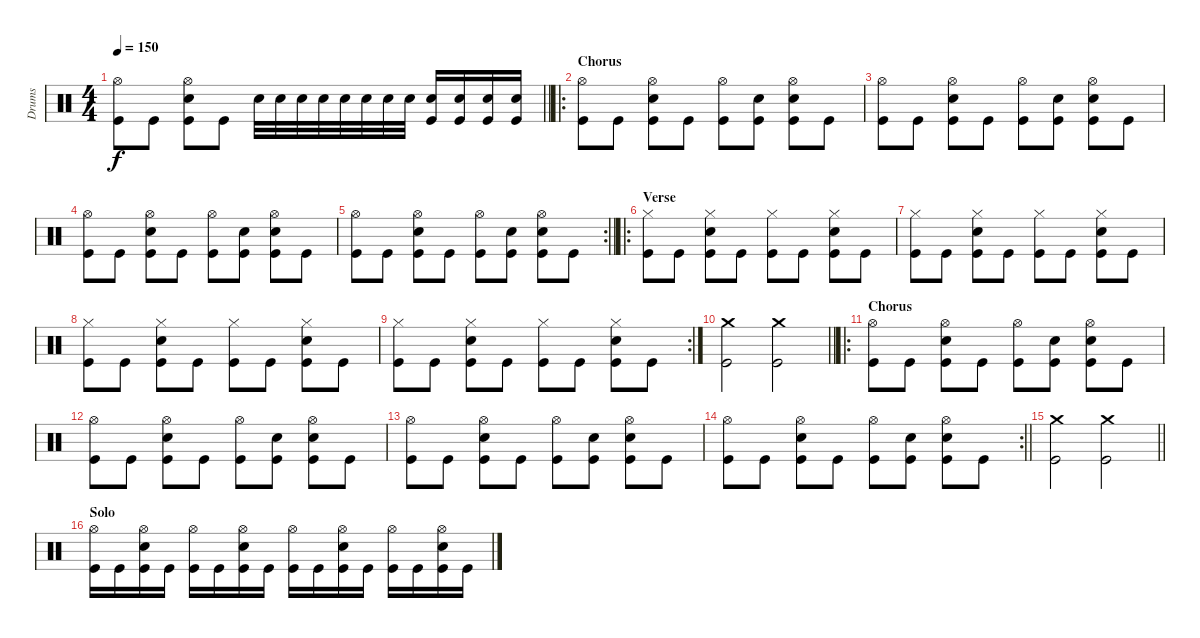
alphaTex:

\track ("Drums" "Drums") {instrument percussion}
\staff {score}
\articulation defaults
\ts (4 4)
\tempo 150
\clef neutral
\barLineRight lightlight
\ks c
("Hi-Hat (open)" "Kick (hit)").8{dy f} "Kick (hit)".8 ("Hi-Hat (open)" "Snare (hit) 2" "Kick (hit)").8 "Kick (hit)".8 "Snare (hit) 2".32 "Snare (hit) 2".32 "Snare (hit) 2".32 "Snare (hit) 2".32 "Snare (hit) 2".32 "Snare (hit) 2".32 "Snare (hit) 2".32 "Snare (hit) 2".32 ("Snare (hit) 2" "Kick (hit)").16 ("Snare (hit) 2" "Kick (hit)").16 ("Snare (hit) 2" "Kick (hit)").16 ("Snare (hit) 2" "Kick (hit)").16 |
\ro
\section ("" "Chorus")
("Hi-Hat (open)" "Kick (hit)").8 "Kick (hit)".8 ("Hi-Hat (open)" "Snare (hit) 2" "Kick (hit)").8 "Kick (hit)".8 ("Hi-Hat (open)" "Kick (hit)").8 ("Snare (hit) 2" "Kick (hit)").8 ("Hi-Hat (open)" "Snare (hit) 2" "Kick (hit)").8 "Kick (hit)".8 |
("Hi-Hat (open)" "Kick (hit)").8 "Kick (hit)".8 ("Hi-Hat (open)" "Snare (hit) 2" "Kick (hit)").8 "Kick (hit)".8 ("Hi-Hat (open)" "Kick (hit)").8 ("Snare (hit) 2" "Kick (hit)").8 ("Hi-Hat (open)" "Snare (hit) 2" "Kick (hit)").8 "Kick (hit)".8 |
("Hi-Hat (open)" "Kick (hit)").8 "Kick (hit)".8 ("Hi-Hat (open)" "Snare (hit) 2" "Kick (hit)").8 "Kick (hit)".8 ("Hi-Hat (open)" "Kick (hit)").8 ("Snare (hit) 2" "Kick (hit)").8 ("Hi-Hat (open)" "Snare (hit) 2" "Kick (hit)").8 "Kick (hit)".8 |
\rc 2
\barLineRight lightlight
("Hi-Hat (open)" "Kick (hit)").8 "Kick (hit)".8 ("Hi-Hat (open)" "Snare (hit) 2" "Kick (hit)").8 "Kick (hit)".8 ("Hi-Hat (open)" "Kick (hit)").8 ("Snare (hit) 2" "Kick (hit)").8 ("Hi-Hat (open)" "Snare (hit) 2" "Kick (hit)").8 "Kick (hit)".8 |
\ro
\section ("" "Verse")
("Hi-Hat (closed)" "Kick (hit)").8 "Kick (hit)".8 ("Hi-Hat (closed)" "Snare (hit) 2" "Kick (hit)").8 "Kick (hit)".8 ("Hi-Hat (closed)" "Kick (hit)").8 "Kick (hit)".8 ("Hi-Hat (closed)" "Snare (hit) 2" "Kick (hit)").8 "Kick (hit)".8 |
("Hi-Hat (closed)" "Kick (hit)").8 "Kick (hit)".8 ("Hi-Hat (closed)" "Snare (hit) 2" "Kick (hit)").8 "Kick (hit)".8 ("Hi-Hat (closed)" "Kick (hit)").8 "Kick (hit)".8 ("Hi-Hat (closed)" "Snare (hit) 2" "Kick (hit)").8 "Kick (hit)".8 |
("Hi-Hat (closed)" "Kick (hit)").8 "Kick (hit)".8 ("Hi-Hat (closed)" "Snare (hit) 2" "Kick (hit)").8 "Kick (hit)".8 ("Hi-Hat (closed)" "Kick (hit)").8 "Kick (hit)".8 ("Hi-Hat (closed)" "Snare (hit) 2" "Kick (hit)").8 "Kick (hit)".8 |
\rc 2
("Hi-Hat (closed)" "Kick (hit)").8 "Kick (hit)".8 ("Hi-Hat (closed)" "Snare (hit) 2" "Kick (hit)").8 "Kick (hit)".8 ("Hi-Hat (closed)" "Kick (hit)").8 "Kick (hit)".8 ("Hi-Hat (closed)" "Snare (hit) 2" "Kick (hit)").8 "Kick (hit)".8 |
\barLineRight lightlight
("Crash medium (hit)" "Kick (hit)").2 ("Crash medium (hit)" "Kick (hit)").2 |
\ro
\section ("" "Chorus")
("Hi-Hat (open)" "Kick (hit)").8 "Kick (hit)".8 ("Hi-Hat (open)" "Snare (hit) 2" "Kick (hit)").8 "Kick (hit)".8 ("Hi-Hat (open)" "Kick (hit)").8 ("Snare (hit) 2" "Kick (hit)").8 ("Hi-Hat (open)" "Snare (hit) 2" "Kick (hit)").8 "Kick (hit)".8 |
("Hi-Hat (open)" "Kick (hit)").8 "Kick (hit)".8 ("Hi-Hat (open)" "Snare (hit) 2" "Kick (hit)").8 "Kick (hit)".8 ("Hi-Hat (open)" "Kick (hit)").8 ("Snare (hit) 2" "Kick (hit)").8 ("Hi-Hat (open)" "Snare (hit) 2" "Kick (hit)").8 "Kick (hit)".8 |
("Hi-Hat (open)" "Kick (hit)").8 "Kick (hit)".8 ("Hi-Hat (open)" "Snare (hit) 2" "Kick (hit)").8 "Kick (hit)".8 ("Hi-Hat (open)" "Kick (hit)").8 ("Snare (hit) 2" "Kick (hit)").8 ("Hi-Hat (open)" "Snare (hit) 2" "Kick (hit)").8 "Kick (hit)".8 |
\rc 2
\barLineRight lightlight
("Hi-Hat (open)" "Kick (hit)").8 "Kick (hit)".8 ("Hi-Hat (open)" "Snare (hit) 2" "Kick (hit)").8 "Kick (hit)".8 ("Hi-Hat (open)" "Kick (hit)").8 ("Snare (hit) 2" "Kick (hit)").8 ("Hi-Hat (open)" "Snare (hit) 2" "Kick (hit)").8 "Kick (hit)".8 |
\barLineRight lightlight
("Crash medium (hit)" "Kick (hit)").2 ("Crash medium (hit)" "Kick (hit)").2 |
\section ("" "Solo")
("Hi-Hat (open)" "Kick (hit)").16 "Kick (hit)".16 ("Hi-Hat (open)" "Snare (hit) 2" "Kick (hit)").16 "Kick (hit)".16 ("Hi-Hat (open)" "Kick (hit)").16 "Kick (hit)".16 ("Hi-Hat (open)" "Snare (hit) 2" "Kick (hit)").16 "Kick (hit)".16 ("Hi-Hat (open)" "Kick (hit)").16 "Kick (hit)".16 ("Hi-Hat (open)" "Snare (hit) 2" "Kick (hit)").16 "Kick (hit)".16 ("Hi-Hat (open)" "Kick (hit)").16 "Kick (hit)".16 ("Hi-Hat (open)" "Snare (hit) 2" "Kick (hit)").16 "Kick (hit)".16
